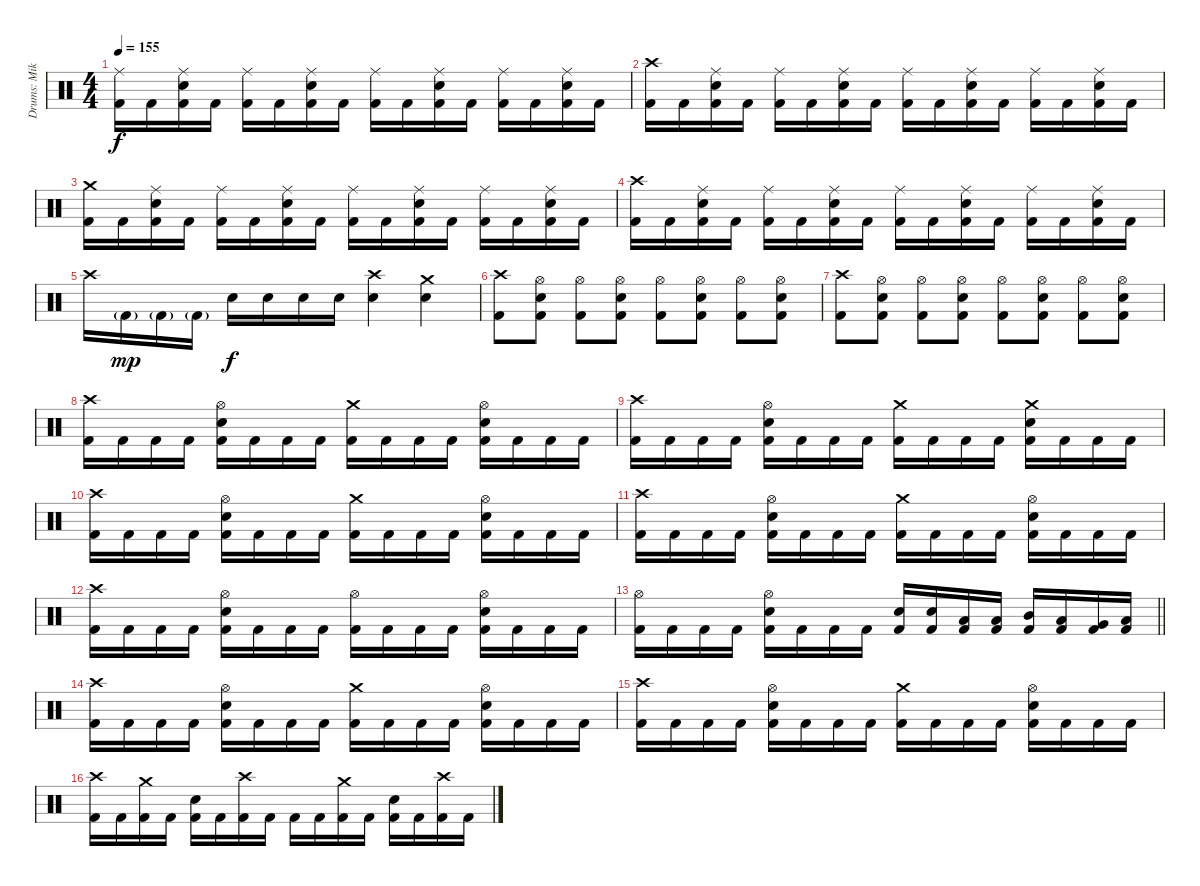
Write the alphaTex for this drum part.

\track ("Drums: Mikko Korsbäck" "Drums: Mik") {instrument percussion}
\staff {score}
\articulation defaults
\ts (4 4)
\tempo 155
\clef neutral
\ks c
("Ride (middle)" "Kick (hit) 2").16{dy f} "Kick (hit) 2".16 ("Ride (middle)" "Electric Snare (hit)" "Kick (hit) 2").16 "Kick (hit) 2".16 ("Ride (middle)" "Kick (hit) 2").16 "Kick (hit) 2".16 ("Ride (middle)" "Electric Snare (hit)" "Kick (hit) 2").16 "Kick (hit) 2".16 ("Ride (middle)" "Kick (hit) 2").16 "Kick (hit) 2".16 ("Ride (middle)" "Electric Snare (hit)" "Kick (hit) 2").16 "Kick (hit) 2".16 ("Ride (middle)" "Kick (hit) 2").16 "Kick (hit) 2".16 ("Ride (middle)" "Electric Snare (hit)" "Kick (hit) 2").16 "Kick (hit) 2".16 |
("Crash high (hit)" "Kick (hit) 2").16 "Kick (hit) 2".16 ("Ride (middle)" "Electric Snare (hit)" "Kick (hit) 2").16 "Kick (hit) 2".16 ("Ride (middle)" "Kick (hit) 2").16 "Kick (hit) 2".16 ("Ride (middle)" "Electric Snare (hit)" "Kick (hit) 2").16 "Kick (hit) 2".16 ("Ride (middle)" "Kick (hit) 2").16 "Kick (hit) 2".16 ("Ride (middle)" "Electric Snare (hit)" "Kick (hit) 2").16 "Kick (hit) 2".16 ("Ride (middle)" "Kick (hit) 2").16 "Kick (hit) 2".16 ("Ride (middle)" "Electric Snare (hit)" "Kick (hit) 2").16 "Kick (hit) 2".16 |
("Crash medium (hit)" "Kick (hit) 2").16 "Kick (hit) 2".16 ("Ride (middle)" "Electric Snare (hit)" "Kick (hit) 2").16 "Kick (hit) 2".16 ("Ride (middle)" "Kick (hit) 2").16 "Kick (hit) 2".16 ("Ride (middle)" "Electric Snare (hit)" "Kick (hit) 2").16 "Kick (hit) 2".16 ("Ride (middle)" "Kick (hit) 2").16 "Kick (hit) 2".16 ("Ride (middle)" "Electric Snare (hit)" "Kick (hit) 2").16 "Kick (hit) 2".16 ("Ride (middle)" "Kick (hit) 2").16 "Kick (hit) 2".16 ("Ride (middle)" "Electric Snare (hit)" "Kick (hit) 2").16 "Kick (hit) 2".16 |
("Crash high (hit)" "Kick (hit) 2").16 "Kick (hit) 2".16 ("Ride (middle)" "Electric Snare (hit)" "Kick (hit) 2").16 "Kick (hit) 2".16 ("Ride (middle)" "Kick (hit) 2").16 "Kick (hit) 2".16 ("Ride (middle)" "Electric Snare (hit)" "Kick (hit) 2").16 "Kick (hit) 2".16 ("Ride (middle)" "Kick (hit) 2").16 "Kick (hit) 2".16 ("Ride (middle)" "Electric Snare (hit)" "Kick (hit) 2").16 "Kick (hit) 2".16 ("Ride (middle)" "Kick (hit) 2").16 "Kick (hit) 2".16 ("Ride (middle)" "Electric Snare (hit)" "Kick (hit) 2").16 "Kick (hit) 2".16 |
"Crash high (hit)".16 "Kick (hit) 2"{g}.16{dy mp} "Kick (hit) 2"{g}.16 "Kick (hit) 2"{g}.16 "Electric Snare (hit)".16{dy f} "Electric Snare (hit)".16 "Electric Snare (hit)".16 "Electric Snare (hit)".16 ("Crash high (hit)" "Electric Snare (hit)").4 ("Crash medium (hit)" "Electric Snare (hit)").4 |
("Crash high (hit)" "Kick (hit) 2").8 ("Hi-Hat (open)" "Electric Snare (hit)" "Kick (hit) 2").8 ("Hi-Hat (open)" "Kick (hit) 2").8 ("Hi-Hat (open)" "Electric Snare (hit)" "Kick (hit) 2").8 ("Hi-Hat (open)" "Kick (hit) 2").8 ("Hi-Hat (open)" "Electric Snare (hit)" "Kick (hit) 2").8 ("Hi-Hat (open)" "Kick (hit) 2").8 ("Hi-Hat (open)" "Electric Snare (hit)" "Kick (hit) 2").8 |
("Crash high (hit)" "Kick (hit) 2").8 ("Hi-Hat (open)" "Electric Snare (hit)" "Kick (hit) 2").8 ("Hi-Hat (open)" "Kick (hit) 2").8 ("Hi-Hat (open)" "Electric Snare (hit)" "Kick (hit) 2").8 ("Hi-Hat (open)" "Kick (hit) 2").8 ("Hi-Hat (open)" "Electric Snare (hit)" "Kick (hit) 2").8 ("Hi-Hat (open)" "Kick (hit) 2").8 ("Hi-Hat (open)" "Electric Snare (hit)" "Kick (hit) 2").8 |
("Crash high (hit)" "Kick (hit) 2").16 "Kick (hit) 2".16 "Kick (hit) 2".16 "Kick (hit) 2".16 ("Hi-Hat (open)" "Electric Snare (hit)" "Kick (hit) 2").16 "Kick (hit) 2".16 "Kick (hit) 2".16 "Kick (hit) 2".16 ("Crash medium (hit)" "Kick (hit) 2").16 "Kick (hit) 2".16 "Kick (hit) 2".16 "Kick (hit) 2".16 ("Hi-Hat (open)" "Electric Snare (hit)" "Kick (hit) 2").16 "Kick (hit) 2".16 "Kick (hit) 2".16 "Kick (hit) 2".16 |
("Crash high (hit)" "Kick (hit) 2").16 "Kick (hit) 2".16 "Kick (hit) 2".16 "Kick (hit) 2".16 ("Hi-Hat (open)" "Electric Snare (hit)" "Kick (hit) 2").16 "Kick (hit) 2".16 "Kick (hit) 2".16 "Kick (hit) 2".16 ("Crash medium (hit)" "Kick (hit) 2").16 "Kick (hit) 2".16 "Kick (hit) 2".16 "Kick (hit) 2".16 ("Crash medium (hit)" "Electric Snare (hit)" "Kick (hit) 2").16 "Kick (hit) 2".16 "Kick (hit) 2".16 "Kick (hit) 2".16 |
("Crash high (hit)" "Kick (hit) 2").16 "Kick (hit) 2".16 "Kick (hit) 2".16 "Kick (hit) 2".16 ("Hi-Hat (open)" "Electric Snare (hit)" "Kick (hit) 2").16 "Kick (hit) 2".16 "Kick (hit) 2".16 "Kick (hit) 2".16 ("Crash medium (hit)" "Kick (hit) 2").16 "Kick (hit) 2".16 "Kick (hit) 2".16 "Kick (hit) 2".16 ("Hi-Hat (open)" "Electric Snare (hit)" "Kick (hit) 2").16 "Kick (hit) 2".16 "Kick (hit) 2".16 "Kick (hit) 2".16 |
("Crash high (hit)" "Kick (hit) 2").16 "Kick (hit) 2".16 "Kick (hit) 2".16 "Kick (hit) 2".16 ("Hi-Hat (open)" "Electric Snare (hit)" "Kick (hit) 2").16 "Kick (hit) 2".16 "Kick (hit) 2".16 "Kick (hit) 2".16 ("Crash medium (hit)" "Kick (hit) 2").16 "Kick (hit) 2".16 "Kick (hit) 2".16 "Kick (hit) 2".16 ("Hi-Hat (open)" "Electric Snare (hit)" "Kick (hit) 2").16 "Kick (hit) 2".16 "Kick (hit) 2".16 "Kick (hit) 2".16 |
("Crash high (hit)" "Kick (hit) 2").16 "Kick (hit) 2".16 "Kick (hit) 2".16 "Kick (hit) 2".16 ("Hi-Hat (open)" "Electric Snare (hit)" "Kick (hit) 2").16 "Kick (hit) 2".16 "Kick (hit) 2".16 "Kick (hit) 2".16 ("Hi-Hat (open)" "Kick (hit) 2").16 "Kick (hit) 2".16 "Kick (hit) 2".16 "Kick (hit) 2".16 ("Hi-Hat (open)" "Electric Snare (hit)" "Kick (hit) 2").16 "Kick (hit) 2".16 "Kick (hit) 2".16 "Kick (hit) 2".16 |
\barLineRight lightlight
("Hi-Hat (open)" "Kick (hit) 2").16 "Kick (hit) 2".16 "Kick (hit) 2".16 "Kick (hit) 2".16 ("Hi-Hat (open)" "Electric Snare (hit)" "Kick (hit) 2").16 "Kick (hit) 2".16 "Kick (hit) 2".16 "Kick (hit) 2".16 ("Electric Snare (hit)" "Kick (hit) 2").16 ("Electric Snare (hit)" "Kick (hit) 2").16 ("Low Tom (hit)" "Kick (hit) 2").16 ("Low Tom (hit)" "Kick (hit) 2").16 ("Mid Tom (hit)" "Kick (hit) 2").16 ("Low Tom (hit)" "Kick (hit) 2").16 ("Very Low Tom (hit)" "Kick (hit) 2").16 ("Low Floor Tom (hit)" "Kick (hit) 2").16 |
("Crash high (hit)" "Kick (hit) 2").16 "Kick (hit) 2".16 "Kick (hit) 2".16 "Kick (hit) 2".16 ("Hi-Hat (open)" "Electric Snare (hit)" "Kick (hit) 2").16 "Kick (hit) 2".16 "Kick (hit) 2".16 "Kick (hit) 2".16 ("Crash medium (hit)" "Kick (hit) 2").16 "Kick (hit) 2".16 "Kick (hit) 2".16 "Kick (hit) 2".16 ("Hi-Hat (open)" "Electric Snare (hit)" "Kick (hit) 2").16 "Kick (hit) 2".16 "Kick (hit) 2".16 "Kick (hit) 2".16 |
("Crash high (hit)" "Kick (hit) 2").16 "Kick (hit) 2".16 "Kick (hit) 2".16 "Kick (hit) 2".16 ("Hi-Hat (open)" "Electric Snare (hit)" "Kick (hit) 2").16 "Kick (hit) 2".16 "Kick (hit) 2".16 "Kick (hit) 2".16 ("Crash medium (hit)" "Kick (hit) 2").16 "Kick (hit) 2".16 "Kick (hit) 2".16 "Kick (hit) 2".16 ("Hi-Hat (open)" "Electric Snare (hit)" "Kick (hit) 2").16 "Kick (hit) 2".16 "Kick (hit) 2".16 "Kick (hit) 2".16 |
("Crash high (hit)" "Kick (hit) 2").16 "Kick (hit) 2".16 ("Crash medium (hit)" "Kick (hit) 2").16 "Kick (hit) 2".16 ("Electric Snare (hit)" "Kick (hit) 2").16 "Kick (hit) 2".16 ("Crash high (hit)" "Kick (hit) 2").16 "Kick (hit) 2".16 "Kick (hit) 2".16 "Kick (hit) 2".16 ("Crash medium (hit)" "Kick (hit) 2").16 "Kick (hit) 2".16 ("Electric Snare (hit)" "Kick (hit) 2").16 "Kick (hit) 2".16 ("Crash high (hit)" "Kick (hit) 2").16 "Kick (hit) 2".16
